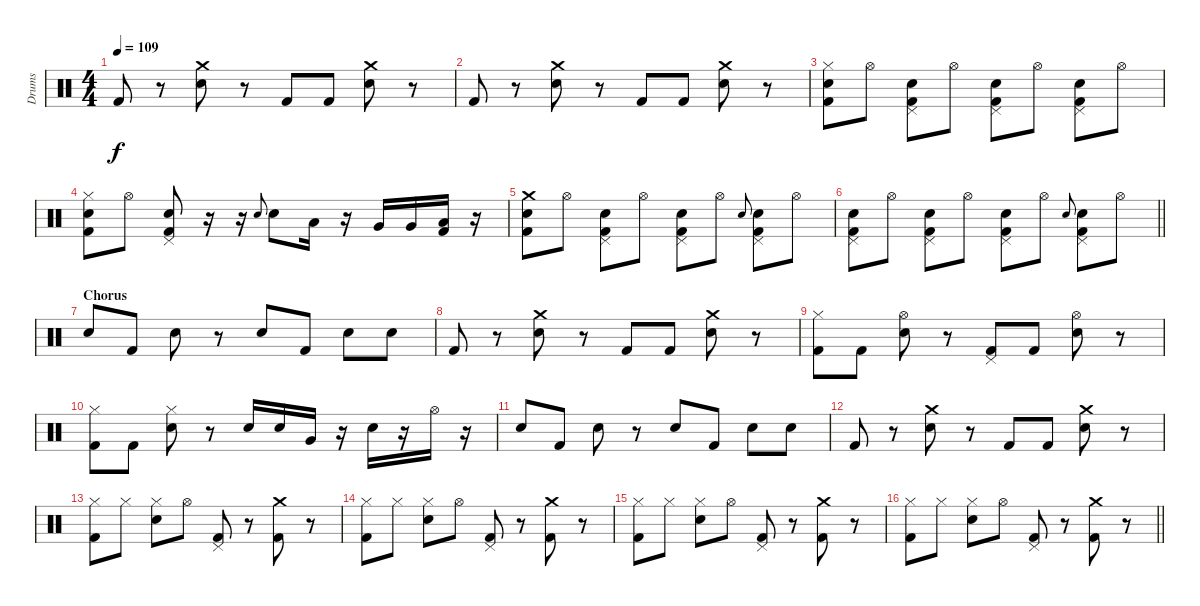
\track ("Drums" "Drums") {instrument percussion}
\staff {score}
\articulation defaults
\ts (4 4)
\tempo 109
\clef neutral
\ks c "Kick (hit) 2".8{dy f}
r.8 ("Crash medium (hit)" "Snare (hit) 2").8 r.8 "Kick (hit) 2".8 "Kick (hit) 2".8 ("Crash medium (hit)" "Snare (hit) 2").8 r.8 |
"Kick (hit) 2".8 r.8 ("Crash medium (hit)" "Snare (hit) 2").8 r.8 "Kick (hit) 2".8 "Kick (hit) 2".8 ("Crash medium (hit)" "Snare (hit) 2").8 r.8 |
("Hi-Hat (closed)" "Snare (hit) 2" "Kick (hit) 2").8 "Hi-Hat (open)".8 ("Pedal Hi-Hat (hit)" "Snare (hit) 2" "Kick (hit) 2").8 "Hi-Hat (open)".8 ("Pedal Hi-Hat (hit)" "Snare (hit) 2" "Kick (hit) 2").8 "Hi-Hat (open)".8 ("Pedal Hi-Hat (hit)" "Snare (hit) 2" "Kick (hit) 2").8 "Hi-Hat (open)".8 |
("Hi-Hat (closed)" "Snare (hit) 2" "Kick (hit) 2").8 "Hi-Hat (open)".8 ("Pedal Hi-Hat (hit)" "Snare (hit) 2" "Kick (hit) 2").8 r.16 r.16 "Snare (hit) 2".8{gr onbeat} "Snare (hit) 2".8 "Low Tom (hit)".16 r.16 "Very Low Tom (hit)".16 "Very Low Tom (hit)".16 ("Low Floor Tom (hit)" "Kick (hit) 2").16 r.16 |
("Crash medium (hit)" "Snare (hit) 2" "Kick (hit) 2").8 "Hi-Hat (open)".8 ("Pedal Hi-Hat (hit)" "Snare (hit) 2" "Kick (hit) 2").8 "Hi-Hat (open)".8 ("Pedal Hi-Hat (hit)" "Snare (hit) 2" "Kick (hit) 2").8 "Hi-Hat (open)".8 "Snare (hit) 2".8{gr onbeat} ("Pedal Hi-Hat (hit)" "Snare (hit) 2" "Kick (hit) 2").8 "Hi-Hat (open)".8 |
\barLineRight lightlight
("Pedal Hi-Hat (hit)" "Snare (hit) 2" "Kick (hit) 2").8 "Hi-Hat (open)".8 ("Pedal Hi-Hat (hit)" "Snare (hit) 2" "Kick (hit) 2").8 "Hi-Hat (open)".8 ("Pedal Hi-Hat (hit)" "Snare (hit) 2" "Kick (hit) 2").8 "Hi-Hat (open)".8 "Snare (hit) 2".8{gr onbeat} ("Pedal Hi-Hat (hit)" "Snare (hit) 2" "Kick (hit) 2").8 "Hi-Hat (open)".8 |
\section ("" "Chorus")
"Snare (hit) 2".8 "Kick (hit) 2".8 "Snare (hit) 2".8 r.8 "Snare (hit) 2".8 "Kick (hit) 2".8 "Snare (hit) 2".8 "Snare (hit) 2".8 |
"Kick (hit) 2".8 r.8 ("Crash medium (hit)" "Snare (hit) 2").8 r.8 "Kick (hit) 2".8 "Kick (hit) 2".8 ("Crash medium (hit)" "Snare (hit) 2").8 r.8 |
("Hi-Hat (closed)" "Kick (hit) 2").8 "Kick (hit) 2".8 ("Hi-Hat (open)" "Snare (hit) 2").8 r.8 ("Pedal Hi-Hat (hit)" "Kick (hit) 2").8 "Kick (hit) 2".8 ("Hi-Hat (open)" "Snare (hit) 2").8 r.8 |
("Hi-Hat (closed)" "Kick (hit) 2").8 "Kick (hit) 2".8 ("Hi-Hat (closed)" "Snare (hit) 2").8 r.8 "Snare (hit) 2".16 "Snare (hit) 2".16 "Very Low Tom (hit)".16 r.16 "Snare (hit) 2".16 r.16 "Hi-Hat (open)".16 r.16 |
"Snare (hit) 2".8 "Kick (hit) 2".8 "Snare (hit) 2".8 r.8 "Snare (hit) 2".8 "Kick (hit) 2".8 "Snare (hit) 2".8 "Snare (hit) 2".8 |
"Kick (hit) 2".8 r.8 ("Crash medium (hit)" "Snare (hit) 2").8 r.8 "Kick (hit) 2".8 "Kick (hit) 2".8 ("Crash medium (hit)" "Snare (hit) 2").8 r.8 |
("Hi-Hat (closed)" "Kick (hit) 2").8 "Hi-Hat (closed)".8 ("Hi-Hat (closed)" "Snare (hit) 2").8 "Hi-Hat (open)".8 ("Pedal Hi-Hat (hit)" "Kick (hit) 2").8 r.8 ("Crash medium (hit)" "Kick (hit) 2").8 r.8 |
("Hi-Hat (closed)" "Kick (hit) 2").8 "Hi-Hat (closed)".8 ("Hi-Hat (closed)" "Snare (hit) 2").8 "Hi-Hat (open)".8 ("Pedal Hi-Hat (hit)" "Kick (hit) 2").8 r.8 ("Crash medium (hit)" "Kick (hit) 2").8 r.8 |
("Hi-Hat (closed)" "Kick (hit) 2").8 "Hi-Hat (closed)".8 ("Hi-Hat (closed)" "Snare (hit) 2").8 "Hi-Hat (open)".8 ("Pedal Hi-Hat (hit)" "Kick (hit) 2").8 r.8 ("Crash medium (hit)" "Kick (hit) 2").8 r.8 |
\barLineRight lightlight
("Hi-Hat (closed)" "Kick (hit) 2").8 "Hi-Hat (closed)".8 ("Hi-Hat (closed)" "Snare (hit) 2").8 "Hi-Hat (open)".8 ("Pedal Hi-Hat (hit)" "Kick (hit) 2").8 r.8 ("Crash medium (hit)" "Kick (hit) 2").8 r.8
